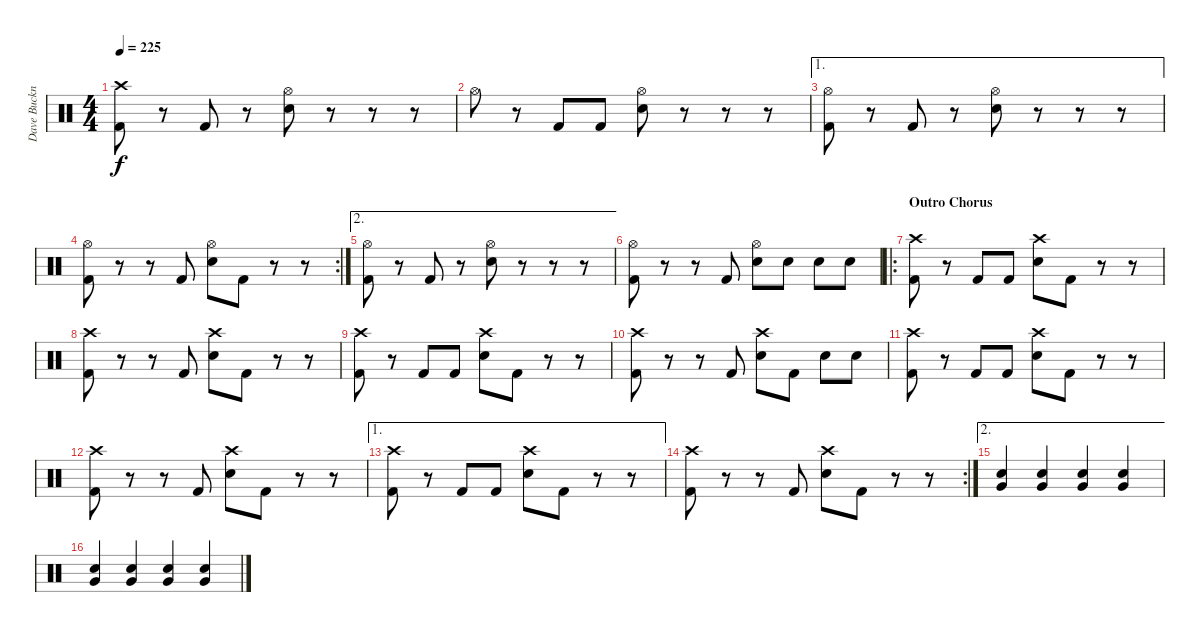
\track ("Dave Buckner" "Dave Buckn") {instrument percussion}
\staff {score}
\articulation defaults
\ts (4 4)
\tempo 225
\clef neutral
\ks c
("Crash high (hit)" "Kick (hit) 2").8{dy f} r.8 "Kick (hit) 2".8 r.8 ("Hi-Hat (open)" "Electric Snare (hit)").8 r.8 r.8 r.8 |
"Hi-Hat (open)".8 r.8 "Kick (hit) 2".8 "Kick (hit) 2".8 ("Hi-Hat (open)" "Electric Snare (hit)").8 r.8 r.8 r.8 |
\ae 1
("Hi-Hat (open)" "Kick (hit) 2").8 r.8 "Kick (hit) 2".8 r.8 ("Hi-Hat (open)" "Electric Snare (hit)").8 r.8 r.8 r.8 |
\rc 2
("Hi-Hat (open)" "Kick (hit) 2").8 r.8 r.8 "Kick (hit) 2".8 ("Hi-Hat (open)" "Electric Snare (hit)").8 "Kick (hit) 2".8 r.8 r.8 |
\ae 2
("Hi-Hat (open)" "Kick (hit) 2").8 r.8 "Kick (hit) 2".8 r.8 ("Hi-Hat (open)" "Electric Snare (hit)").8 r.8 r.8 r.8 |
("Hi-Hat (open)" "Kick (hit) 2").8 r.8 r.8 "Kick (hit) 2".8 ("Hi-Hat (open)" "Electric Snare (hit)").8 "Electric Snare (hit)".8 "Electric Snare (hit)".8 "Electric Snare (hit)".8 |
\ro
\section ("" "Outro Chorus")
("Crash high (hit)" "Kick (hit) 2").8 r.8 "Kick (hit) 2".8 "Kick (hit) 2".8 ("Crash high (hit)" "Electric Snare (hit)").8 "Kick (hit) 2".8 r.8 r.8 |
("Crash high (hit)" "Kick (hit) 2").8 r.8 r.8 "Kick (hit) 2".8 ("Crash high (hit)" "Electric Snare (hit)").8 "Kick (hit) 2".8 r.8 r.8 |
("Crash high (hit)" "Kick (hit) 2").8 r.8 "Kick (hit) 2".8 "Kick (hit) 2".8 ("Crash high (hit)" "Electric Snare (hit)").8 "Kick (hit) 2".8 r.8 r.8 |
("Crash high (hit)" "Kick (hit) 2").8 r.8 r.8 "Kick (hit) 2".8 ("Crash high (hit)" "Electric Snare (hit)").8 "Kick (hit) 2".8 "Electric Snare (hit)".8 "Electric Snare (hit)".8 |
("Crash high (hit)" "Kick (hit) 2").8 r.8 "Kick (hit) 2".8 "Kick (hit) 2".8 ("Crash high (hit)" "Electric Snare (hit)").8 "Kick (hit) 2".8 r.8 r.8 |
("Crash high (hit)" "Kick (hit) 2").8 r.8 r.8 "Kick (hit) 2".8 ("Crash high (hit)" "Electric Snare (hit)").8 "Kick (hit) 2".8 r.8 r.8 |
\ae 1
("Crash high (hit)" "Kick (hit) 2").8 r.8 "Kick (hit) 2".8 "Kick (hit) 2".8 ("Crash high (hit)" "Electric Snare (hit)").8 "Kick (hit) 2".8 r.8 r.8 |
\rc 2
("Crash high (hit)" "Kick (hit) 2").8 r.8 r.8 "Kick (hit) 2".8 ("Crash high (hit)" "Electric Snare (hit)").8 "Kick (hit) 2".8 r.8 r.8 |
\ae 2
("Very Low Tom (hit)" "Electric Snare (hit)").4{volume 8} ("Very Low Tom (hit)" "Electric Snare (hit)").4{volume 13} ("Very Low Tom (hit)" "Electric Snare (hit)").4 ("Very Low Tom (hit)" "Electric Snare (hit)").4 |
("Very Low Tom (hit)" "Electric Snare (hit)").4 ("Very Low Tom (hit)" "Electric Snare (hit)").4 ("Very Low Tom (hit)" "Electric Snare (hit)").4 ("Very Low Tom (hit)" "Electric Snare (hit)").4
